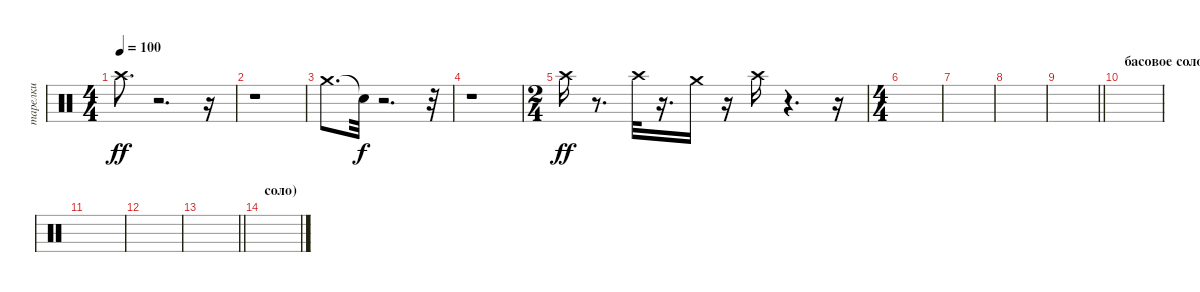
\track ("тарелки" "тарелки") {instrument percussion}
\staff {score}
\articulation defaults
\ts (4 4)
\tempo 100
\clef neutral
\ks c "Crash high (hit)".8{d dy ff}
r.2{d} r.16 |
r.1 |
"Crash medium (hit)".8{d} "Snare (hit)"{t}.32{dy f} r.2{d} r.32 |
r.1 |
\ts (2 4)
"Crash high (hit)".16{dy ff} r.8{d} "Crash high (hit)".32 r.16{d} "Crash medium (hit)".16 r.16 "Crash high (hit)".16 r.4{d} r.16 |
\ts (4 4)
|
|
|
\barLineRight lightlight
|
\section ("" "басовое соло")
|
|
|
\barLineRight lightlight
|
\section ("" "соло)")
